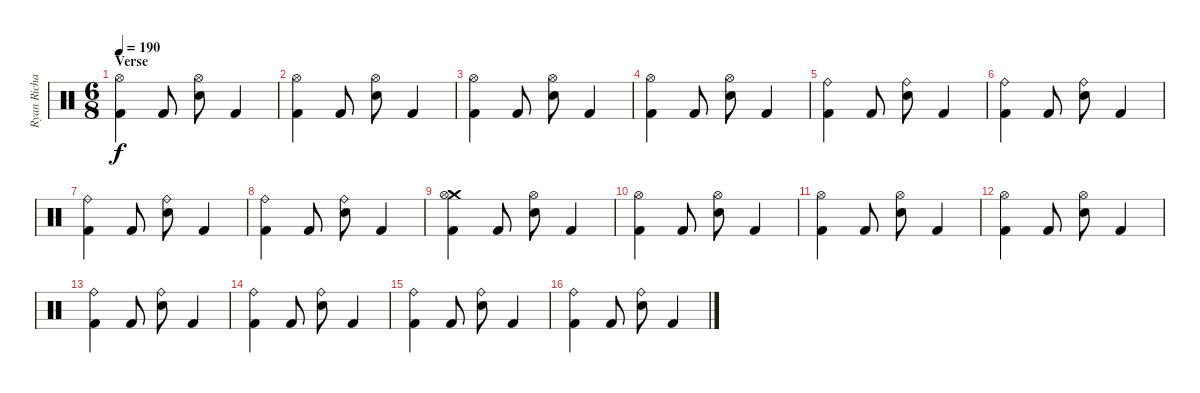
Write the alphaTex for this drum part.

\track ("Ryan Richards" "Ryan Richa") {instrument percussion bank 127}
\staff {score}
\articulation defaults
\ts (6 8)
\section ("" "Verse")
\tempo 190
\clef neutral
\ks c
("Hi-Hat (open)" "Kick (hit) 2").4{dy f} "Kick (hit) 2".8 ("Hi-Hat (open)" "Snare (hit) 2").8 "Kick (hit) 2".4 |
("Hi-Hat (open)" "Kick (hit) 2").4 "Kick (hit) 2".8 ("Hi-Hat (open)" "Snare (hit) 2").8 "Kick (hit) 2".4 |
("Hi-Hat (open)" "Kick (hit) 2").4 "Kick (hit) 2".8 ("Hi-Hat (open)" "Snare (hit) 2").8 "Kick (hit) 2".4 |
("Hi-Hat (open)" "Kick (hit) 2").4 "Kick (hit) 2".8 ("Hi-Hat (open)" "Snare (hit) 2").8 "Kick (hit) 2".4 |
("Ride (bell)" "Kick (hit) 2").4 "Kick (hit) 2".8 ("Ride (bell)" "Snare (hit) 2").8 "Kick (hit) 2".4 |
("Ride (bell)" "Kick (hit) 2").4 "Kick (hit) 2".8 ("Ride (bell)" "Snare (hit) 2").8 "Kick (hit) 2".4 |
("Ride (bell)" "Kick (hit) 2").4 "Kick (hit) 2".8 ("Ride (bell)" "Snare (hit) 2").8 "Kick (hit) 2".4 |
("Ride (bell)" "Kick (hit) 2").4 "Kick (hit) 2".8 ("Ride (bell)" "Snare (hit) 2").8 "Kick (hit) 2".4 |
("Crash medium (hit)" "Hi-Hat (open)" "Kick (hit) 2").4 "Kick (hit) 2".8 ("Hi-Hat (open)" "Snare (hit) 2").8 "Kick (hit) 2".4 |
("Hi-Hat (open)" "Kick (hit) 2").4 "Kick (hit) 2".8 ("Hi-Hat (open)" "Snare (hit) 2").8 "Kick (hit) 2".4 |
("Hi-Hat (open)" "Kick (hit) 2").4 "Kick (hit) 2".8 ("Hi-Hat (open)" "Snare (hit) 2").8 "Kick (hit) 2".4 |
("Hi-Hat (open)" "Kick (hit) 2").4 "Kick (hit) 2".8 ("Hi-Hat (open)" "Snare (hit) 2").8 "Kick (hit) 2".4 |
("Ride (bell)" "Kick (hit) 2").4 "Kick (hit) 2".8 ("Ride (bell)" "Snare (hit) 2").8 "Kick (hit) 2".4 |
("Ride (bell)" "Kick (hit) 2").4 "Kick (hit) 2".8 ("Ride (bell)" "Snare (hit) 2").8 "Kick (hit) 2".4 |
("Ride (bell)" "Kick (hit) 2").4 "Kick (hit) 2".8 ("Ride (bell)" "Snare (hit) 2").8 "Kick (hit) 2".4 |
("Ride (bell)" "Kick (hit) 2").4 "Kick (hit) 2".8 ("Ride (bell)" "Snare (hit) 2").8 "Kick (hit) 2".4
